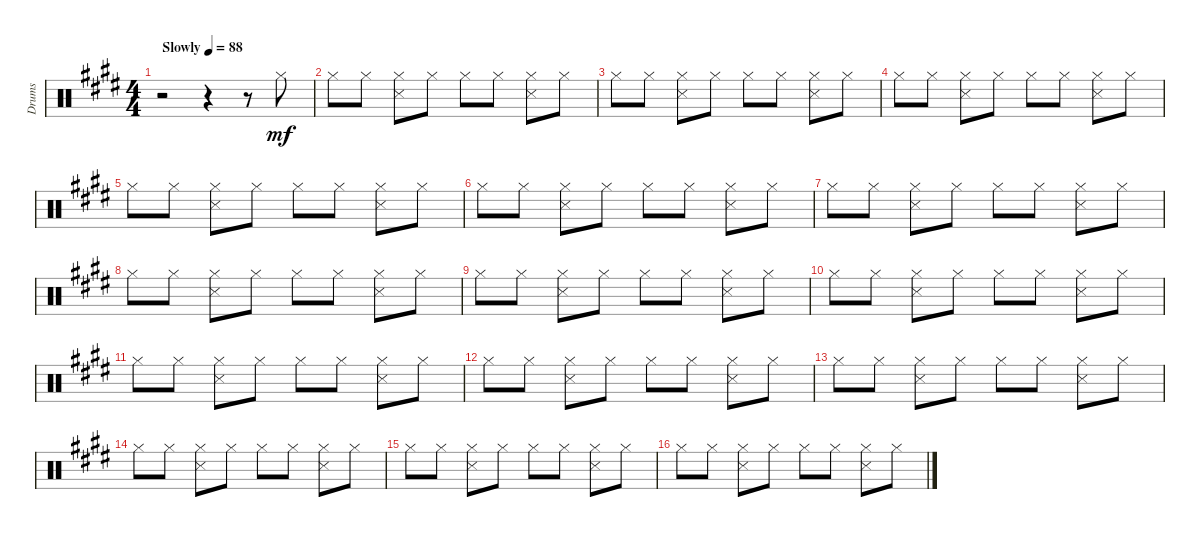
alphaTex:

\track ("Drums" "Drums") {instrument percussion}
\staff {score}
\articulation defaults
\ts (4 4)
\tempo (88 "Slowly")
\clef neutral
\ks e
r.2{dy mf} r.4 r.8 "Hi-Hat (closed)".8 |
"Hi-Hat (closed)".8 "Hi-Hat (closed)".8 ("Hi-Hat (closed)" "Metronome (hit)").8 "Hi-Hat (closed)".8 "Hi-Hat (closed)".8 "Hi-Hat (closed)".8 ("Hi-Hat (closed)" "Metronome (hit)").8 "Hi-Hat (closed)".8 |
"Hi-Hat (closed)".8 "Hi-Hat (closed)".8 ("Hi-Hat (closed)" "Metronome (hit)").8 "Hi-Hat (closed)".8 "Hi-Hat (closed)".8 "Hi-Hat (closed)".8 ("Hi-Hat (closed)" "Metronome (hit)").8 "Hi-Hat (closed)".8 |
"Hi-Hat (closed)".8 "Hi-Hat (closed)".8 ("Hi-Hat (closed)" "Metronome (hit)").8 "Hi-Hat (closed)".8 "Hi-Hat (closed)".8 "Hi-Hat (closed)".8 ("Hi-Hat (closed)" "Metronome (hit)").8 "Hi-Hat (closed)".8 |
"Hi-Hat (closed)".8 "Hi-Hat (closed)".8 ("Hi-Hat (closed)" "Metronome (hit)").8 "Hi-Hat (closed)".8 "Hi-Hat (closed)".8 "Hi-Hat (closed)".8 ("Hi-Hat (closed)" "Metronome (hit)").8 "Hi-Hat (closed)".8 |
"Hi-Hat (closed)".8 "Hi-Hat (closed)".8 ("Hi-Hat (closed)" "Metronome (hit)").8 "Hi-Hat (closed)".8 "Hi-Hat (closed)".8 "Hi-Hat (closed)".8 ("Hi-Hat (closed)" "Metronome (hit)").8 "Hi-Hat (closed)".8 |
"Hi-Hat (closed)".8 "Hi-Hat (closed)".8 ("Hi-Hat (closed)" "Metronome (hit)").8 "Hi-Hat (closed)".8 "Hi-Hat (closed)".8 "Hi-Hat (closed)".8 ("Hi-Hat (closed)" "Metronome (hit)").8 "Hi-Hat (closed)".8 |
"Hi-Hat (closed)".8 "Hi-Hat (closed)".8 ("Hi-Hat (closed)" "Metronome (hit)").8 "Hi-Hat (closed)".8 "Hi-Hat (closed)".8 "Hi-Hat (closed)".8 ("Hi-Hat (closed)" "Metronome (hit)").8 "Hi-Hat (closed)".8 |
"Hi-Hat (closed)".8 "Hi-Hat (closed)".8 ("Hi-Hat (closed)" "Metronome (hit)").8 "Hi-Hat (closed)".8 "Hi-Hat (closed)".8 "Hi-Hat (closed)".8 ("Hi-Hat (closed)" "Metronome (hit)").8 "Hi-Hat (closed)".8 |
"Hi-Hat (closed)".8 "Hi-Hat (closed)".8 ("Hi-Hat (closed)" "Metronome (hit)").8 "Hi-Hat (closed)".8 "Hi-Hat (closed)".8 "Hi-Hat (closed)".8 ("Hi-Hat (closed)" "Metronome (hit)").8 "Hi-Hat (closed)".8 |
"Hi-Hat (closed)".8 "Hi-Hat (closed)".8 ("Hi-Hat (closed)" "Metronome (hit)").8 "Hi-Hat (closed)".8 "Hi-Hat (closed)".8 "Hi-Hat (closed)".8 ("Hi-Hat (closed)" "Metronome (hit)").8 "Hi-Hat (closed)".8 |
"Hi-Hat (closed)".8 "Hi-Hat (closed)".8 ("Hi-Hat (closed)" "Metronome (hit)").8 "Hi-Hat (closed)".8 "Hi-Hat (closed)".8 "Hi-Hat (closed)".8 ("Hi-Hat (closed)" "Metronome (hit)").8 "Hi-Hat (closed)".8 |
"Hi-Hat (closed)".8 "Hi-Hat (closed)".8 ("Hi-Hat (closed)" "Metronome (hit)").8 "Hi-Hat (closed)".8 "Hi-Hat (closed)".8 "Hi-Hat (closed)".8 ("Hi-Hat (closed)" "Metronome (hit)").8 "Hi-Hat (closed)".8 |
"Hi-Hat (closed)".8 "Hi-Hat (closed)".8 ("Hi-Hat (closed)" "Metronome (hit)").8 "Hi-Hat (closed)".8 "Hi-Hat (closed)".8 "Hi-Hat (closed)".8 ("Hi-Hat (closed)" "Metronome (hit)").8 "Hi-Hat (closed)".8 |
"Hi-Hat (closed)".8 "Hi-Hat (closed)".8 ("Hi-Hat (closed)" "Metronome (hit)").8 "Hi-Hat (closed)".8 "Hi-Hat (closed)".8 "Hi-Hat (closed)".8 ("Hi-Hat (closed)" "Metronome (hit)").8 "Hi-Hat (closed)".8 |
"Hi-Hat (closed)".8 "Hi-Hat (closed)".8 ("Hi-Hat (closed)" "Metronome (hit)").8 "Hi-Hat (closed)".8 "Hi-Hat (closed)".8 "Hi-Hat (closed)".8 ("Hi-Hat (closed)" "Metronome (hit)").8 "Hi-Hat (closed)".8
